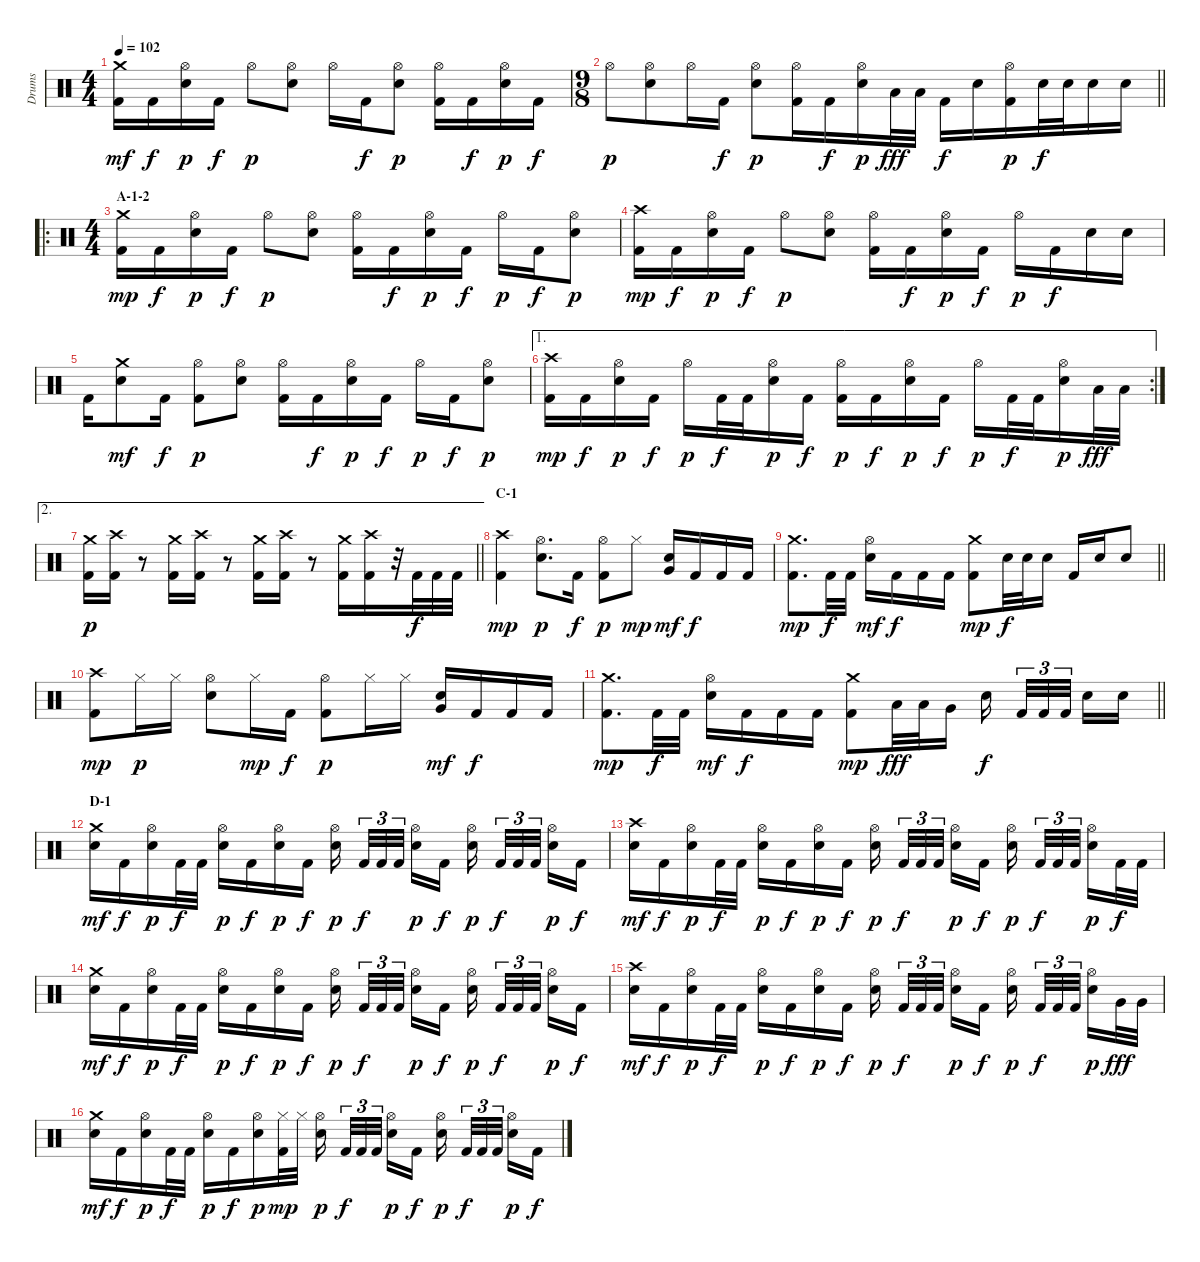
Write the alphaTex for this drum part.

\track ("Drums" "Drums") {instrument percussion}
\staff {score}
\articulation defaults
\ts (4 4)
\tempo 102
\clef neutral
\ks c
("Crash medium (hit)" "Kick (hit) 2").16{dy mf} "Kick (hit) 2".16{dy f} ("Hi-Hat (open)" "Electric Snare (hit)").16{dy p} "Kick (hit) 2".16{dy f} "Hi-Hat (open)".8{dy p} ("Hi-Hat (open)" "Electric Snare (hit)").8 "Hi-Hat (open)".16 "Kick (hit) 2".16{dy f} ("Hi-Hat (open)" "Electric Snare (hit)").8{dy p} ("Hi-Hat (open)" "Kick (hit) 2").16 "Kick (hit) 2".16{dy f} ("Hi-Hat (open)" "Electric Snare (hit)").16{dy p} "Kick (hit) 2".16{dy f} |
\ts (9 8)
\barLineRight lightlight "Hi-Hat (open)".8{dy p}
("Hi-Hat (open)" "Electric Snare (hit)").8 "Hi-Hat (open)".16 "Kick (hit) 2".16{dy f} ("Hi-Hat (open)" "Electric Snare (hit)").8{dy p} ("Hi-Hat (open)" "Kick (hit) 2").16 "Kick (hit) 2".16{dy f} ("Hi-Hat (open)" "Electric Snare (hit)").16{dy p} "Low Tom (hit)".32{dy fff} "Low Tom (hit)".32 "Kick (hit) 2".16{dy f} "Electric Snare (hit)".16 ("Hi-Hat (open)" "Kick (hit) 2").16{dy p} "Electric Snare (hit)".32{dy f} "Electric Snare (hit)".32 "Electric Snare (hit)".16 "Electric Snare (hit)".16 |
\ro
\ts (4 4)
\section ("" "A-1-2")
("Crash medium (hit)" "Kick (hit) 2").16{dy mp} "Kick (hit) 2".16{dy f} ("Hi-Hat (open)" "Electric Snare (hit)").16{dy p} "Kick (hit) 2".16{dy f} "Hi-Hat (open)".8{dy p} ("Hi-Hat (open)" "Electric Snare (hit)").8 ("Hi-Hat (open)" "Kick (hit) 2").16 "Kick (hit) 2".16{dy f} ("Hi-Hat (open)" "Electric Snare (hit)").16{dy p} "Kick (hit) 2".16{dy f} "Hi-Hat (open)".16{dy p} "Kick (hit) 2".16{dy f} ("Hi-Hat (open)" "Electric Snare (hit)").8{dy p} |
("Crash high (hit)" "Kick (hit) 2").16{dy mp} "Kick (hit) 2".16{dy f} ("Hi-Hat (open)" "Electric Snare (hit)").16{dy p} "Kick (hit) 2".16{dy f} "Hi-Hat (open)".8{dy p} ("Hi-Hat (open)" "Electric Snare (hit)").8 ("Hi-Hat (open)" "Kick (hit) 2").16 "Kick (hit) 2".16{dy f} ("Hi-Hat (open)" "Electric Snare (hit)").16{dy p} "Kick (hit) 2".16{dy f} "Hi-Hat (open)".16{dy p} "Kick (hit) 2".16{dy f} "Electric Snare (hit)".16 "Electric Snare (hit)".16 |
"Kick (hit) 2".16 ("Crash medium (hit)" "Electric Snare (hit)").8{dy mf} "Kick (hit) 2".16{dy f} ("Hi-Hat (open)" "Kick (hit) 2").8{dy p} ("Hi-Hat (open)" "Electric Snare (hit)").8 ("Hi-Hat (open)" "Kick (hit) 2").16 "Kick (hit) 2".16{dy f} ("Hi-Hat (open)" "Electric Snare (hit)").16{dy p} "Kick (hit) 2".16{dy f} "Hi-Hat (open)".16{dy p} "Kick (hit) 2".16{dy f} ("Hi-Hat (open)" "Electric Snare (hit)").8{dy p} |
\ae 1
\rc 2
("Crash high (hit)" "Kick (hit) 2").16{dy mp} "Kick (hit) 2".16{dy f} ("Hi-Hat (open)" "Electric Snare (hit)").16{dy p} "Kick (hit) 2".16{dy f} "Hi-Hat (open)".16{dy p} "Kick (hit) 2".32{dy f} "Kick (hit) 2".32 ("Hi-Hat (open)" "Electric Snare (hit)").16{dy p} "Kick (hit) 2".16{dy f} ("Hi-Hat (open)" "Kick (hit) 2").16{dy p} "Kick (hit) 2".16{dy f} ("Hi-Hat (open)" "Electric Snare (hit)").16{dy p} "Kick (hit) 2".16{dy f} "Hi-Hat (open)".16{dy p} "Kick (hit) 2".32{dy f} "Kick (hit) 2".32 ("Hi-Hat (open)" "Electric Snare (hit)").16{dy p} "Low Tom (hit)".32{dy fff} "Low Tom (hit)".32 |
\ae 2
\barLineRight lightlight
("Crash medium (hit)" "Kick (hit) 2").16{dy p} ("Crash high (hit)" "Kick (hit) 2").16 r.8 ("Crash medium (hit)" "Kick (hit) 2").16 ("Crash high (hit)" "Kick (hit) 2").16 r.8 ("Crash medium (hit)" "Kick (hit) 2").16 ("Crash high (hit)" "Kick (hit) 2").16 r.8 ("Crash medium (hit)" "Kick (hit) 2").16 ("Crash high (hit)" "Kick (hit) 2").16 r.32 "Kick (hit) 2".32{dy f} "Kick (hit) 2".32 "Kick (hit) 2".32 |
\section ("" "C-1")
("Crash high (hit)" "Kick (hit) 2").4{dy mp} ("Hi-Hat (open)" "Electric Snare (hit)").8{d dy p} "Kick (hit) 2".16{dy f} ("Hi-Hat (open)" "Kick (hit) 2").8{dy p} "Hi-Hat (closed)".8{dy mp} ("Very Low Tom (hit)" "Electric Snare (hit)").16{dy mf} "Kick (hit) 2".16{dy f} "Kick (hit) 2".16 "Kick (hit) 2".16 |
\barLineRight lightlight
("Crash medium (hit)" "Kick (hit) 2").8{d dy mp} "Kick (hit) 2".32{dy f} "Kick (hit) 2".32 ("Hi-Hat (open)" "Electric Snare (hit)").16{dy mf} "Kick (hit) 2".16{dy f} "Kick (hit) 2".16 "Kick (hit) 2".16 ("Crash medium (hit)" "Kick (hit) 2").8{dy mp} "Electric Snare (hit)".32{dy f} "Electric Snare (hit)".32 "Electric Snare (hit)".16 "Kick (hit) 2".16 "Electric Snare (hit)".16 "Electric Snare (hit)".8 |
("Crash high (hit)" "Kick (hit) 2").8{dy mp} "Hi-Hat (closed)".16{dy p} "Hi-Hat (closed)".16 ("Hi-Hat (open)" "Electric Snare (hit)").8 "Hi-Hat (closed)".16{dy mp} "Kick (hit) 2".16{dy f} ("Hi-Hat (open)" "Kick (hit) 2").8{dy p} "Hi-Hat (closed)".16 "Hi-Hat (closed)".16 ("Very Low Tom (hit)" "Electric Snare (hit)").16{dy mf} "Kick (hit) 2".16{dy f} "Kick (hit) 2".16 "Kick (hit) 2".16 |
\barLineRight lightlight
("Crash medium (hit)" "Kick (hit) 2").8{d dy mp} "Kick (hit) 2".32{dy f} "Kick (hit) 2".32 ("Hi-Hat (open)" "Electric Snare (hit)").16{dy mf} "Kick (hit) 2".16{dy f} "Kick (hit) 2".16 "Kick (hit) 2".16 ("Crash medium (hit)" "Kick (hit) 2").8{dy mp} "Low Tom (hit)".32{dy fff} "Low Tom (hit)".32 "Very Low Tom (hit)".16 "Electric Snare (hit)".16{dy f beam splitsecondary} "Kick (hit) 2".32{tu (3 2)} "Kick (hit) 2".32{tu (3 2)} "Kick (hit) 2".32{tu (3 2) beam splitsecondary} "Electric Snare (hit)".16 "Electric Snare (hit)".16 |
\section ("" "D-1")
("Crash medium (hit)" "Electric Snare (hit)").16{dy mf} "Kick (hit) 2".16{dy f} ("Hi-Hat (open)" "Electric Snare (hit)").16{dy p} "Kick (hit) 2".32{dy f} "Kick (hit) 2".32 ("Hi-Hat (open)" "Electric Snare (hit)").16{dy p} "Kick (hit) 2".16{dy f} ("Hi-Hat (open)" "Electric Snare (hit)").16{dy p} "Kick (hit) 2".16{dy f} ("Hi-Hat (open)" "Electric Snare (hit)").16{dy p beam splitsecondary} "Kick (hit) 2".32{tu (3 2) dy f} "Kick (hit) 2".32{tu (3 2)} "Kick (hit) 2".32{tu (3 2) beam splitsecondary} ("Hi-Hat (open)" "Electric Snare (hit)").16{dy p} "Kick (hit) 2".16{dy f} ("Hi-Hat (open)" "Electric Snare (hit)").16{dy p beam splitsecondary} "Kick (hit) 2".32{tu (3 2) dy f} "Kick (hit) 2".32{tu (3 2)} "Kick (hit) 2".32{tu (3 2) beam splitsecondary} ("Hi-Hat (open)" "Electric Snare (hit)").16{dy p} "Kick (hit) 2".16{dy f} |
("Crash high (hit)" "Electric Snare (hit)").16{dy mf} "Kick (hit) 2".16{dy f} ("Hi-Hat (open)" "Electric Snare (hit)").16{dy p} "Kick (hit) 2".32{dy f} "Kick (hit) 2".32 ("Hi-Hat (open)" "Electric Snare (hit)").16{dy p} "Kick (hit) 2".16{dy f} ("Hi-Hat (open)" "Electric Snare (hit)").16{dy p} "Kick (hit) 2".16{dy f} ("Hi-Hat (open)" "Electric Snare (hit)").16{dy p beam splitsecondary} "Kick (hit) 2".32{tu (3 2) dy f} "Kick (hit) 2".32{tu (3 2)} "Kick (hit) 2".32{tu (3 2) beam splitsecondary} ("Hi-Hat (open)" "Electric Snare (hit)").16{dy p} "Kick (hit) 2".16{dy f} ("Hi-Hat (open)" "Electric Snare (hit)").16{dy p beam splitsecondary} "Kick (hit) 2".32{tu (3 2) dy f} "Kick (hit) 2".32{tu (3 2)} "Kick (hit) 2".32{tu (3 2) beam splitsecondary} ("Hi-Hat (open)" "Electric Snare (hit)").16{dy p} "Kick (hit) 2".32{dy f} "Kick (hit) 2".32 |
("Crash medium (hit)" "Electric Snare (hit)").16{dy mf} "Kick (hit) 2".16{dy f} ("Hi-Hat (open)" "Electric Snare (hit)").16{dy p} "Kick (hit) 2".32{dy f} "Kick (hit) 2".32 ("Hi-Hat (open)" "Electric Snare (hit)").16{dy p} "Kick (hit) 2".16{dy f} ("Hi-Hat (open)" "Electric Snare (hit)").16{dy p} "Kick (hit) 2".16{dy f} ("Hi-Hat (open)" "Electric Snare (hit)").16{dy p beam splitsecondary} "Kick (hit) 2".32{tu (3 2) dy f} "Kick (hit) 2".32{tu (3 2)} "Kick (hit) 2".32{tu (3 2) beam splitsecondary} ("Hi-Hat (open)" "Electric Snare (hit)").16{dy p} "Kick (hit) 2".16{dy f} ("Hi-Hat (open)" "Electric Snare (hit)").16{dy p beam splitsecondary} "Kick (hit) 2".32{tu (3 2) dy f} "Kick (hit) 2".32{tu (3 2)} "Kick (hit) 2".32{tu (3 2) beam splitsecondary} ("Hi-Hat (open)" "Electric Snare (hit)").16{dy p} "Kick (hit) 2".16{dy f} |
("Crash high (hit)" "Electric Snare (hit)").16{dy mf} "Kick (hit) 2".16{dy f} ("Hi-Hat (open)" "Electric Snare (hit)").16{dy p} "Kick (hit) 2".32{dy f} "Kick (hit) 2".32 ("Hi-Hat (open)" "Electric Snare (hit)").16{dy p} "Kick (hit) 2".16{dy f} ("Hi-Hat (open)" "Electric Snare (hit)").16{dy p} "Kick (hit) 2".16{dy f} ("Hi-Hat (open)" "Electric Snare (hit)").16{dy p beam splitsecondary} "Kick (hit) 2".32{tu (3 2) dy f} "Kick (hit) 2".32{tu (3 2)} "Kick (hit) 2".32{tu (3 2) beam splitsecondary} ("Hi-Hat (open)" "Electric Snare (hit)").16{dy p} "Kick (hit) 2".16{dy f} ("Hi-Hat (open)" "Electric Snare (hit)").16{dy p beam splitsecondary} "Kick (hit) 2".32{tu (3 2) dy f} "Kick (hit) 2".32{tu (3 2)} "Kick (hit) 2".32{tu (3 2) beam splitsecondary} ("Hi-Hat (open)" "Electric Snare (hit)").16{dy p} "Very Low Tom (hit)".32{dy fff} "Very Low Tom (hit)".32 |
("Crash medium (hit)" "Electric Snare (hit)").16{dy mf} "Kick (hit) 2".16{dy f} ("Hi-Hat (open)" "Electric Snare (hit)").16{dy p} "Kick (hit) 2".32{dy f} "Kick (hit) 2".32 ("Hi-Hat (open)" "Electric Snare (hit)").16{dy p} "Kick (hit) 2".16{dy f} ("Hi-Hat (open)" "Electric Snare (hit)").16{dy p} ("Hi-Hat (closed)" "Kick (hit) 2").32{dy mp} "Hi-Hat (closed)".32 ("Hi-Hat (open)" "Electric Snare (hit)").16{dy p beam splitsecondary} "Kick (hit) 2".32{tu (3 2) dy f} "Kick (hit) 2".32{tu (3 2)} "Kick (hit) 2".32{tu (3 2) beam splitsecondary} ("Hi-Hat (open)" "Electric Snare (hit)").16{dy p} "Kick (hit) 2".16{dy f} ("Hi-Hat (open)" "Electric Snare (hit)").16{dy p beam splitsecondary} "Kick (hit) 2".32{tu (3 2) dy f} "Kick (hit) 2".32{tu (3 2)} "Kick (hit) 2".32{tu (3 2) beam splitsecondary} ("Hi-Hat (open)" "Electric Snare (hit)").16{dy p} "Kick (hit) 2".16{dy f}
